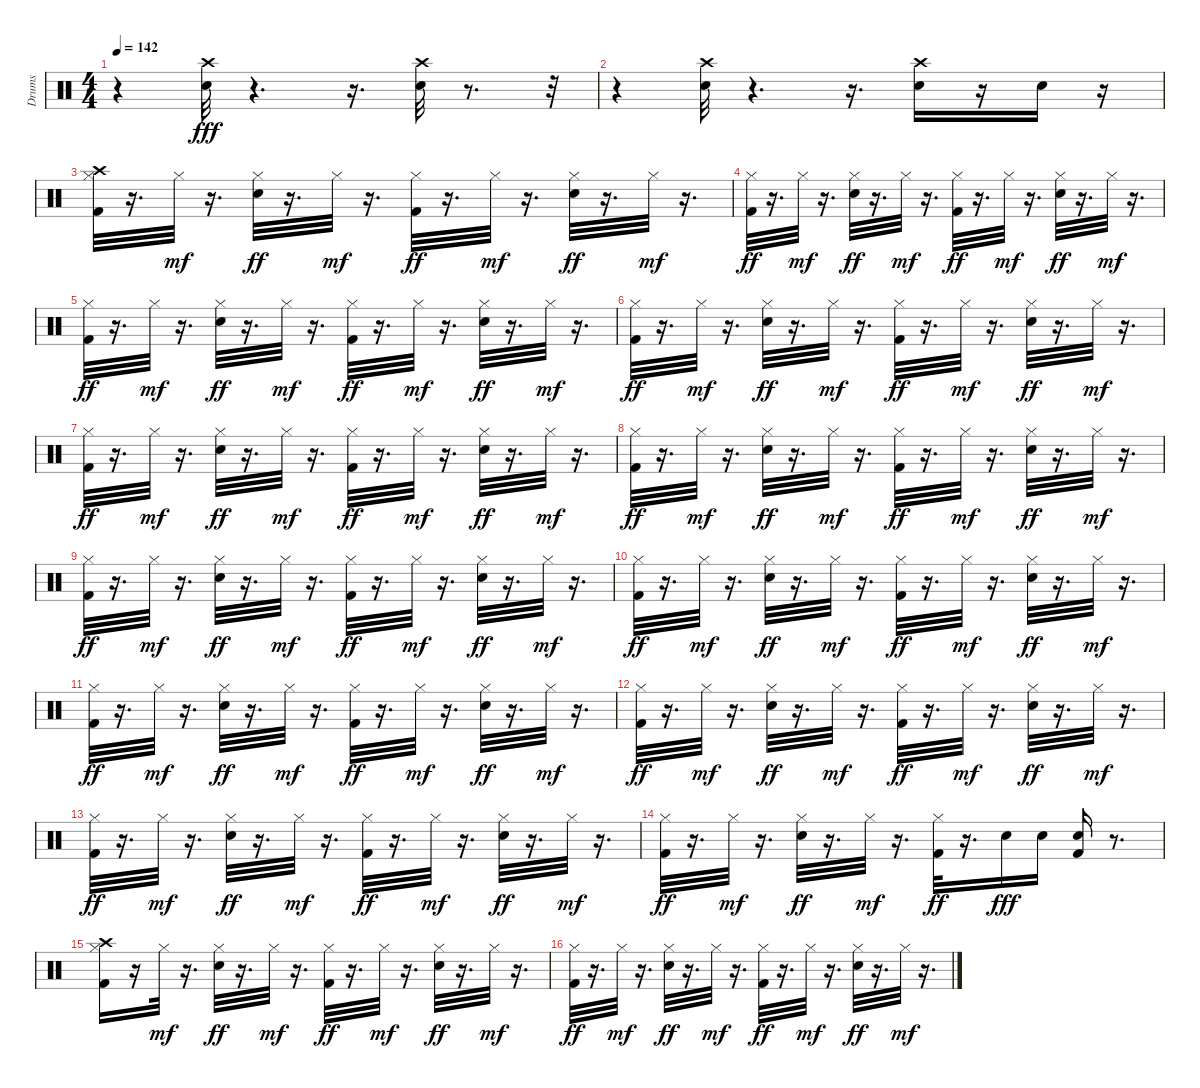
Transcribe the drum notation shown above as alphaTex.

\track ("Drums" "Drums") {instrument percussion}
\staff {score}
\articulation defaults
\ts (4 4)
\tempo 142
\clef neutral
\ks c
r.4{dy fff} ("Snare (hit) 2" "Crash high (hit)").32 r.4{d} r.16{d} ("Snare (hit) 2" "Crash high (hit)").32 r.8{d} r.32 |
r.4 ("Snare (hit) 2" "Crash high (hit)").32 r.4{d} r.16{d} ("Snare (hit) 2" "Crash high (hit)").16 r.16 "Snare (hit) 2".16 r.16 |
("Kick (hit) 2" "Hi-Hat (closed)" "Crash high (hit)").32 r.16{d} "Hi-Hat (closed)".32{dy mf} r.16{d} ("Snare (hit) 2" "Hi-Hat (closed)").32{dy ff} r.16{d} "Hi-Hat (closed)".32{dy mf} r.16{d} ("Kick (hit) 2" "Hi-Hat (closed)").32{dy ff} r.16{d} "Hi-Hat (closed)".32{dy mf} r.16{d} ("Snare (hit) 2" "Hi-Hat (closed)").32{dy ff} r.16{d} "Hi-Hat (closed)".32{dy mf} r.16{d} |
("Kick (hit) 2" "Hi-Hat (closed)").32{dy ff} r.16{d} "Hi-Hat (closed)".32{dy mf} r.16{d} ("Snare (hit) 2" "Hi-Hat (closed)").32{dy ff} r.16{d} "Hi-Hat (closed)".32{dy mf} r.16{d} ("Kick (hit) 2" "Hi-Hat (closed)").32{dy ff} r.16{d} "Hi-Hat (closed)".32{dy mf} r.16{d} ("Snare (hit) 2" "Hi-Hat (closed)").32{dy ff} r.16{d} "Hi-Hat (closed)".32{dy mf} r.16{d} |
("Kick (hit) 2" "Hi-Hat (closed)").32{dy ff} r.16{d} "Hi-Hat (closed)".32{dy mf} r.16{d} ("Snare (hit) 2" "Hi-Hat (closed)").32{dy ff} r.16{d} "Hi-Hat (closed)".32{dy mf} r.16{d} ("Kick (hit) 2" "Hi-Hat (closed)").32{dy ff} r.16{d} "Hi-Hat (closed)".32{dy mf} r.16{d} ("Snare (hit) 2" "Hi-Hat (closed)").32{dy ff} r.16{d} "Hi-Hat (closed)".32{dy mf} r.16{d} |
("Kick (hit) 2" "Hi-Hat (closed)").32{dy ff} r.16{d} "Hi-Hat (closed)".32{dy mf} r.16{d} ("Snare (hit) 2" "Hi-Hat (closed)").32{dy ff} r.16{d} "Hi-Hat (closed)".32{dy mf} r.16{d} ("Kick (hit) 2" "Hi-Hat (closed)").32{dy ff} r.16{d} "Hi-Hat (closed)".32{dy mf} r.16{d} ("Snare (hit) 2" "Hi-Hat (closed)").32{dy ff} r.16{d} "Hi-Hat (closed)".32{dy mf} r.16{d} |
("Kick (hit) 2" "Hi-Hat (closed)").32{dy ff} r.16{d} "Hi-Hat (closed)".32{dy mf} r.16{d} ("Snare (hit) 2" "Hi-Hat (closed)").32{dy ff} r.16{d} "Hi-Hat (closed)".32{dy mf} r.16{d} ("Kick (hit) 2" "Hi-Hat (closed)").32{dy ff} r.16{d} "Hi-Hat (closed)".32{dy mf} r.16{d} ("Snare (hit) 2" "Hi-Hat (closed)").32{dy ff} r.16{d} "Hi-Hat (closed)".32{dy mf} r.16{d} |
("Kick (hit) 2" "Hi-Hat (closed)").32{dy ff} r.16{d} "Hi-Hat (closed)".32{dy mf} r.16{d} ("Snare (hit) 2" "Hi-Hat (closed)").32{dy ff} r.16{d} "Hi-Hat (closed)".32{dy mf} r.16{d} ("Kick (hit) 2" "Hi-Hat (closed)").32{dy ff} r.16{d} "Hi-Hat (closed)".32{dy mf} r.16{d} ("Snare (hit) 2" "Hi-Hat (closed)").32{dy ff} r.16{d} "Hi-Hat (closed)".32{dy mf} r.16{d} |
("Kick (hit) 2" "Hi-Hat (closed)").32{dy ff} r.16{d} "Hi-Hat (closed)".32{dy mf} r.16{d} ("Snare (hit) 2" "Hi-Hat (closed)").32{dy ff} r.16{d} "Hi-Hat (closed)".32{dy mf} r.16{d} ("Kick (hit) 2" "Hi-Hat (closed)").32{dy ff} r.16{d} "Hi-Hat (closed)".32{dy mf} r.16{d} ("Snare (hit) 2" "Hi-Hat (closed)").32{dy ff} r.16{d} "Hi-Hat (closed)".32{dy mf} r.16{d} |
("Kick (hit) 2" "Hi-Hat (closed)").32{dy ff} r.16{d} "Hi-Hat (closed)".32{dy mf} r.16{d} ("Snare (hit) 2" "Hi-Hat (closed)").32{dy ff} r.16{d} "Hi-Hat (closed)".32{dy mf} r.16{d} ("Kick (hit) 2" "Hi-Hat (closed)").32{dy ff} r.16{d} "Hi-Hat (closed)".32{dy mf} r.16{d} ("Snare (hit) 2" "Hi-Hat (closed)").32{dy ff} r.16{d} "Hi-Hat (closed)".32{dy mf} r.16{d} |
("Kick (hit) 2" "Hi-Hat (closed)").32{dy ff} r.16{d} "Hi-Hat (closed)".32{dy mf} r.16{d} ("Snare (hit) 2" "Hi-Hat (closed)").32{dy ff} r.16{d} "Hi-Hat (closed)".32{dy mf} r.16{d} ("Kick (hit) 2" "Hi-Hat (closed)").32{dy ff} r.16{d} "Hi-Hat (closed)".32{dy mf} r.16{d} ("Snare (hit) 2" "Hi-Hat (closed)").32{dy ff} r.16{d} "Hi-Hat (closed)".32{dy mf} r.16{d} |
("Kick (hit) 2" "Hi-Hat (closed)").32{dy ff} r.16{d} "Hi-Hat (closed)".32{dy mf} r.16{d} ("Snare (hit) 2" "Hi-Hat (closed)").32{dy ff} r.16{d} "Hi-Hat (closed)".32{dy mf} r.16{d} ("Kick (hit) 2" "Hi-Hat (closed)").32{dy ff} r.16{d} "Hi-Hat (closed)".32{dy mf} r.16{d} ("Snare (hit) 2" "Hi-Hat (closed)").32{dy ff} r.16{d} "Hi-Hat (closed)".32{dy mf} r.16{d} |
("Kick (hit) 2" "Hi-Hat (closed)").32{dy ff} r.16{d} "Hi-Hat (closed)".32{dy mf} r.16{d} ("Snare (hit) 2" "Hi-Hat (closed)").32{dy ff} r.16{d} "Hi-Hat (closed)".32{dy mf} r.16{d} ("Kick (hit) 2" "Hi-Hat (closed)").32{dy ff} r.16{d} "Hi-Hat (closed)".32{dy mf} r.16{d} ("Snare (hit) 2" "Hi-Hat (closed)").32{dy ff} r.16{d} "Hi-Hat (closed)".32{dy mf} r.16{d} |
("Kick (hit) 2" "Hi-Hat (closed)").32{dy ff} r.16{d} "Hi-Hat (closed)".32{dy mf} r.16{d} ("Snare (hit) 2" "Hi-Hat (closed)").32{dy ff} r.16{d} "Hi-Hat (closed)".32{dy mf} r.16{d} ("Kick (hit) 2" "Hi-Hat (closed)").32{dy ff} r.16{d} "Snare (hit) 2".16{dy fff} "Snare (hit) 2".16 ("Kick (hit) 2" "Snare (hit) 2").16 r.8{d} |
("Kick (hit) 2" "Hi-Hat (closed)" "Crash high (hit)").16 r.16 "Hi-Hat (closed)".32{dy mf} r.16{d} ("Snare (hit) 2" "Hi-Hat (closed)").32{dy ff} r.16{d} "Hi-Hat (closed)".32{dy mf} r.16{d} ("Kick (hit) 2" "Hi-Hat (closed)").32{dy ff} r.16{d} "Hi-Hat (closed)".32{dy mf} r.16{d} ("Snare (hit) 2" "Hi-Hat (closed)").32{dy ff} r.16{d} "Hi-Hat (closed)".32{dy mf} r.16{d} |
("Kick (hit) 2" "Hi-Hat (closed)").32{dy ff} r.16{d} "Hi-Hat (closed)".32{dy mf} r.16{d} ("Snare (hit) 2" "Hi-Hat (closed)").32{dy ff} r.16{d} "Hi-Hat (closed)".32{dy mf} r.16{d} ("Kick (hit) 2" "Hi-Hat (closed)").32{dy ff} r.16{d} "Hi-Hat (closed)".32{dy mf} r.16{d} ("Snare (hit) 2" "Hi-Hat (closed)").32{dy ff} r.16{d} "Hi-Hat (closed)".32{dy mf} r.16{d}
